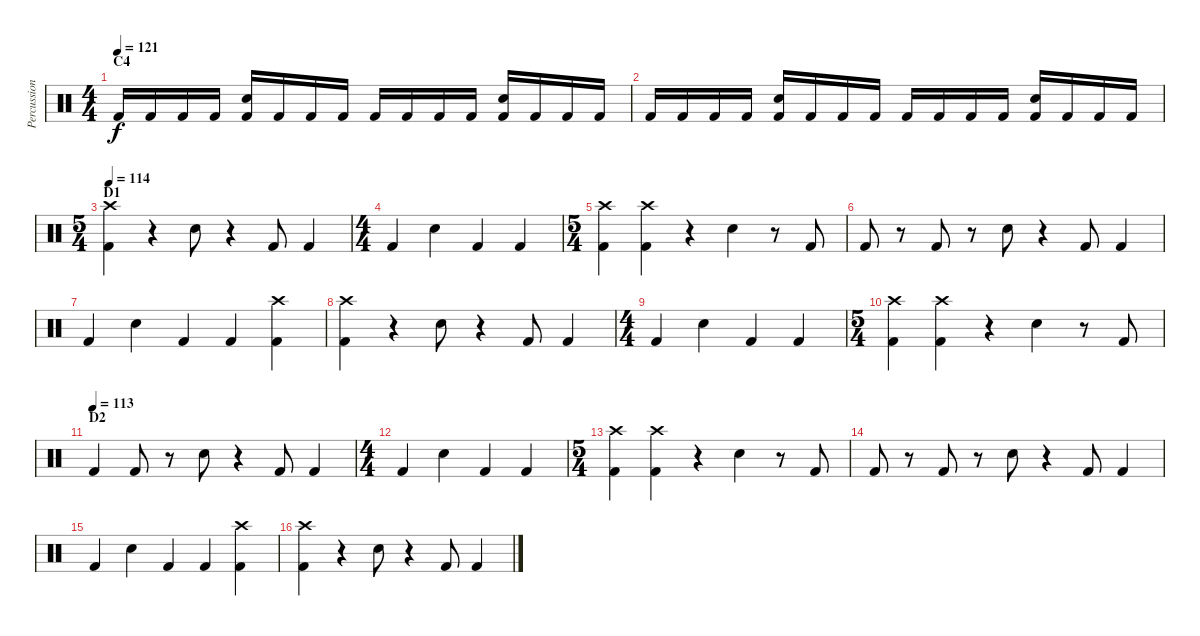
\track ("Percussion" "Percussion") {instrument percussion}
\staff {score}
\articulation defaults
\ts (4 4)
\section ("" "C4")
\tempo 121
\clef neutral
\ks c "Kick (hit) 2".16{dy f} "Kick (hit) 2".16 "Kick (hit) 2".16 "Kick (hit) 2".16
("Kick (hit) 2" "Electric Snare (hit)").16 "Kick (hit) 2".16 "Kick (hit) 2".16 "Kick (hit) 2".16 "Kick (hit) 2".16 "Kick (hit) 2".16 "Kick (hit) 2".16 "Kick (hit) 2".16 ("Kick (hit) 2" "Electric Snare (hit)").16 "Kick (hit) 2".16 "Kick (hit) 2".16 "Kick (hit) 2".16 |
"Kick (hit) 2".16 "Kick (hit) 2".16 "Kick (hit) 2".16 "Kick (hit) 2".16 ("Kick (hit) 2" "Electric Snare (hit)").16 "Kick (hit) 2".16 "Kick (hit) 2".16 "Kick (hit) 2".16 "Kick (hit) 2".16 "Kick (hit) 2".16 "Kick (hit) 2".16 "Kick (hit) 2".16 ("Kick (hit) 2" "Electric Snare (hit)").16 "Kick (hit) 2".16 "Kick (hit) 2".16 "Kick (hit) 2".16 |
\ts (5 4)
\section ("" "D1")
\tempo 114
("Kick (hit) 2" "Crash high (hit)").4 r.4 "Electric Snare (hit)".8 r.4 "Kick (hit) 2".8 "Kick (hit) 2".4 |
\ts (4 4)
"Kick (hit) 2".4 "Electric Snare (hit)".4 "Kick (hit) 2".4 "Kick (hit) 2".4 |
\ts (5 4)
("Kick (hit) 2" "Crash high (hit)").4 ("Kick (hit) 2" "Crash high (hit)").4 r.4 "Electric Snare (hit)".4 r.8 "Kick (hit) 2".8 |
"Kick (hit) 2".8 r.8 "Kick (hit) 2".8 r.8 "Electric Snare (hit)".8 r.4 "Kick (hit) 2".8 "Kick (hit) 2".4 |
"Kick (hit) 2".4 "Electric Snare (hit)".4 "Kick (hit) 2".4 "Kick (hit) 2".4 ("Kick (hit) 2" "Crash high (hit)").4 |
("Kick (hit) 2" "Crash high (hit)").4 r.4 "Electric Snare (hit)".8 r.4 "Kick (hit) 2".8 "Kick (hit) 2".4 |
\ts (4 4)
"Kick (hit) 2".4 "Electric Snare (hit)".4 "Kick (hit) 2".4 "Kick (hit) 2".4 |
\ts (5 4)
("Kick (hit) 2" "Crash high (hit)").4 ("Kick (hit) 2" "Crash high (hit)").4 r.4 "Electric Snare (hit)".4 r.8 "Kick (hit) 2".8 |
\section ("" "D2")
\tempo (113)
"Kick (hit) 2".4 "Kick (hit) 2".8 r.8 "Electric Snare (hit)".8 r.4 "Kick (hit) 2".8 "Kick (hit) 2".4 |
\ts (4 4)
"Kick (hit) 2".4 "Electric Snare (hit)".4 "Kick (hit) 2".4 "Kick (hit) 2".4 |
\ts (5 4)
("Kick (hit) 2" "Crash high (hit)").4 ("Kick (hit) 2" "Crash high (hit)").4 r.4 "Electric Snare (hit)".4 r.8 "Kick (hit) 2".8 |
"Kick (hit) 2".8 r.8 "Kick (hit) 2".8 r.8 "Electric Snare (hit)".8 r.4 "Kick (hit) 2".8 "Kick (hit) 2".4 |
"Kick (hit) 2".4 "Electric Snare (hit)".4 "Kick (hit) 2".4 "Kick (hit) 2".4 ("Kick (hit) 2" "Crash high (hit)").4 |
("Kick (hit) 2" "Crash high (hit)").4 r.4 "Electric Snare (hit)".8 r.4 "Kick (hit) 2".8 "Kick (hit) 2".4
